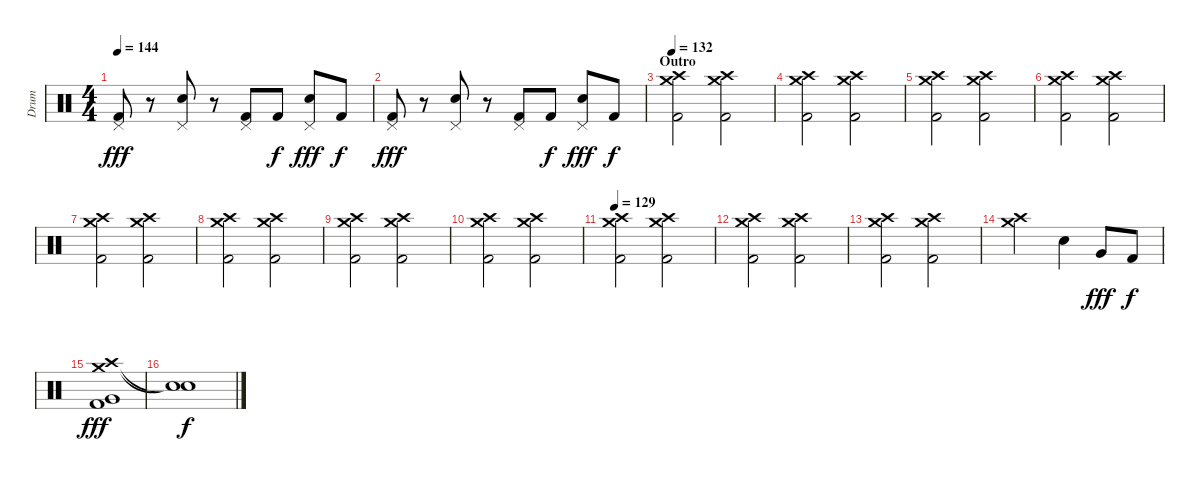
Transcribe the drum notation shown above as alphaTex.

\track ("Drum" "Drum") {instrument percussion}
\staff {score}
\articulation defaults
\ts (4 4)
\tempo 144
\clef neutral
\ks c
("Pedal Hi-Hat (hit)" "Kick (hit) 2").8{dy fff} r.8 ("Pedal Hi-Hat (hit)" "Electric Snare (hit)").8 r.8 ("Pedal Hi-Hat (hit)" "Kick (hit) 2").8 "Kick (hit) 2".8{dy f} ("Pedal Hi-Hat (hit)" "Electric Snare (hit)").8{dy fff} "Kick (hit) 2".8{dy f} |
("Pedal Hi-Hat (hit)" "Kick (hit) 2").8{dy fff} r.8 ("Pedal Hi-Hat (hit)" "Electric Snare (hit)").8 r.8 ("Pedal Hi-Hat (hit)" "Kick (hit) 2").8 "Kick (hit) 2".8{dy f} ("Pedal Hi-Hat (hit)" "Electric Snare (hit)").8{dy fff} "Kick (hit) 2".8{dy f} |
\section ("" "Outro")
\tempo 132
("Crash high (hit)" "Crash medium (hit)" "Kick (hit) 2").2 ("Crash high (hit)" "Crash medium (hit)" "Kick (hit) 2").2 |
("Crash high (hit)" "Crash medium (hit)" "Kick (hit) 2").2 ("Crash high (hit)" "Crash medium (hit)" "Kick (hit) 2").2 |
("Crash high (hit)" "Crash medium (hit)" "Kick (hit) 2").2 ("Crash high (hit)" "Crash medium (hit)" "Kick (hit) 2").2 |
("Crash high (hit)" "Crash medium (hit)" "Kick (hit) 2").2 ("Crash high (hit)" "Crash medium (hit)" "Kick (hit) 2").2 |
("Crash high (hit)" "Crash medium (hit)" "Kick (hit) 2").2 ("Crash high (hit)" "Crash medium (hit)" "Kick (hit) 2").2 |
("Crash high (hit)" "Crash medium (hit)" "Kick (hit) 2").2 ("Crash high (hit)" "Crash medium (hit)" "Kick (hit) 2").2 |
("Crash high (hit)" "Crash medium (hit)" "Kick (hit) 2").2 ("Crash high (hit)" "Crash medium (hit)" "Kick (hit) 2").2 |
("Crash high (hit)" "Crash medium (hit)" "Kick (hit) 2").2 ("Crash high (hit)" "Crash medium (hit)" "Kick (hit) 2").2 |
\tempo 129
("Crash high (hit)" "Crash medium (hit)" "Kick (hit) 2").2 ("Crash high (hit)" "Crash medium (hit)" "Kick (hit) 2").2 |
("Crash high (hit)" "Crash medium (hit)" "Kick (hit) 2").2 ("Crash high (hit)" "Crash medium (hit)" "Kick (hit) 2").2 |
("Crash high (hit)" "Crash medium (hit)" "Kick (hit) 2").2 ("Crash high (hit)" "Crash medium (hit)" "Kick (hit) 2").2 |
("Crash high (hit)" "Crash medium (hit)").2 "Electric Snare (hit)".4 "Very Low Tom (hit)".8{dy fff} "Kick (hit) 2".8{dy f} |
("Crash high (hit)" "Crash medium (hit)" "Very Low Tom (hit)" "Kick (hit) 2").1{dy fff} |
("Snare (hit)"{t} "Snare (hit)"{t}).1{dy f}
